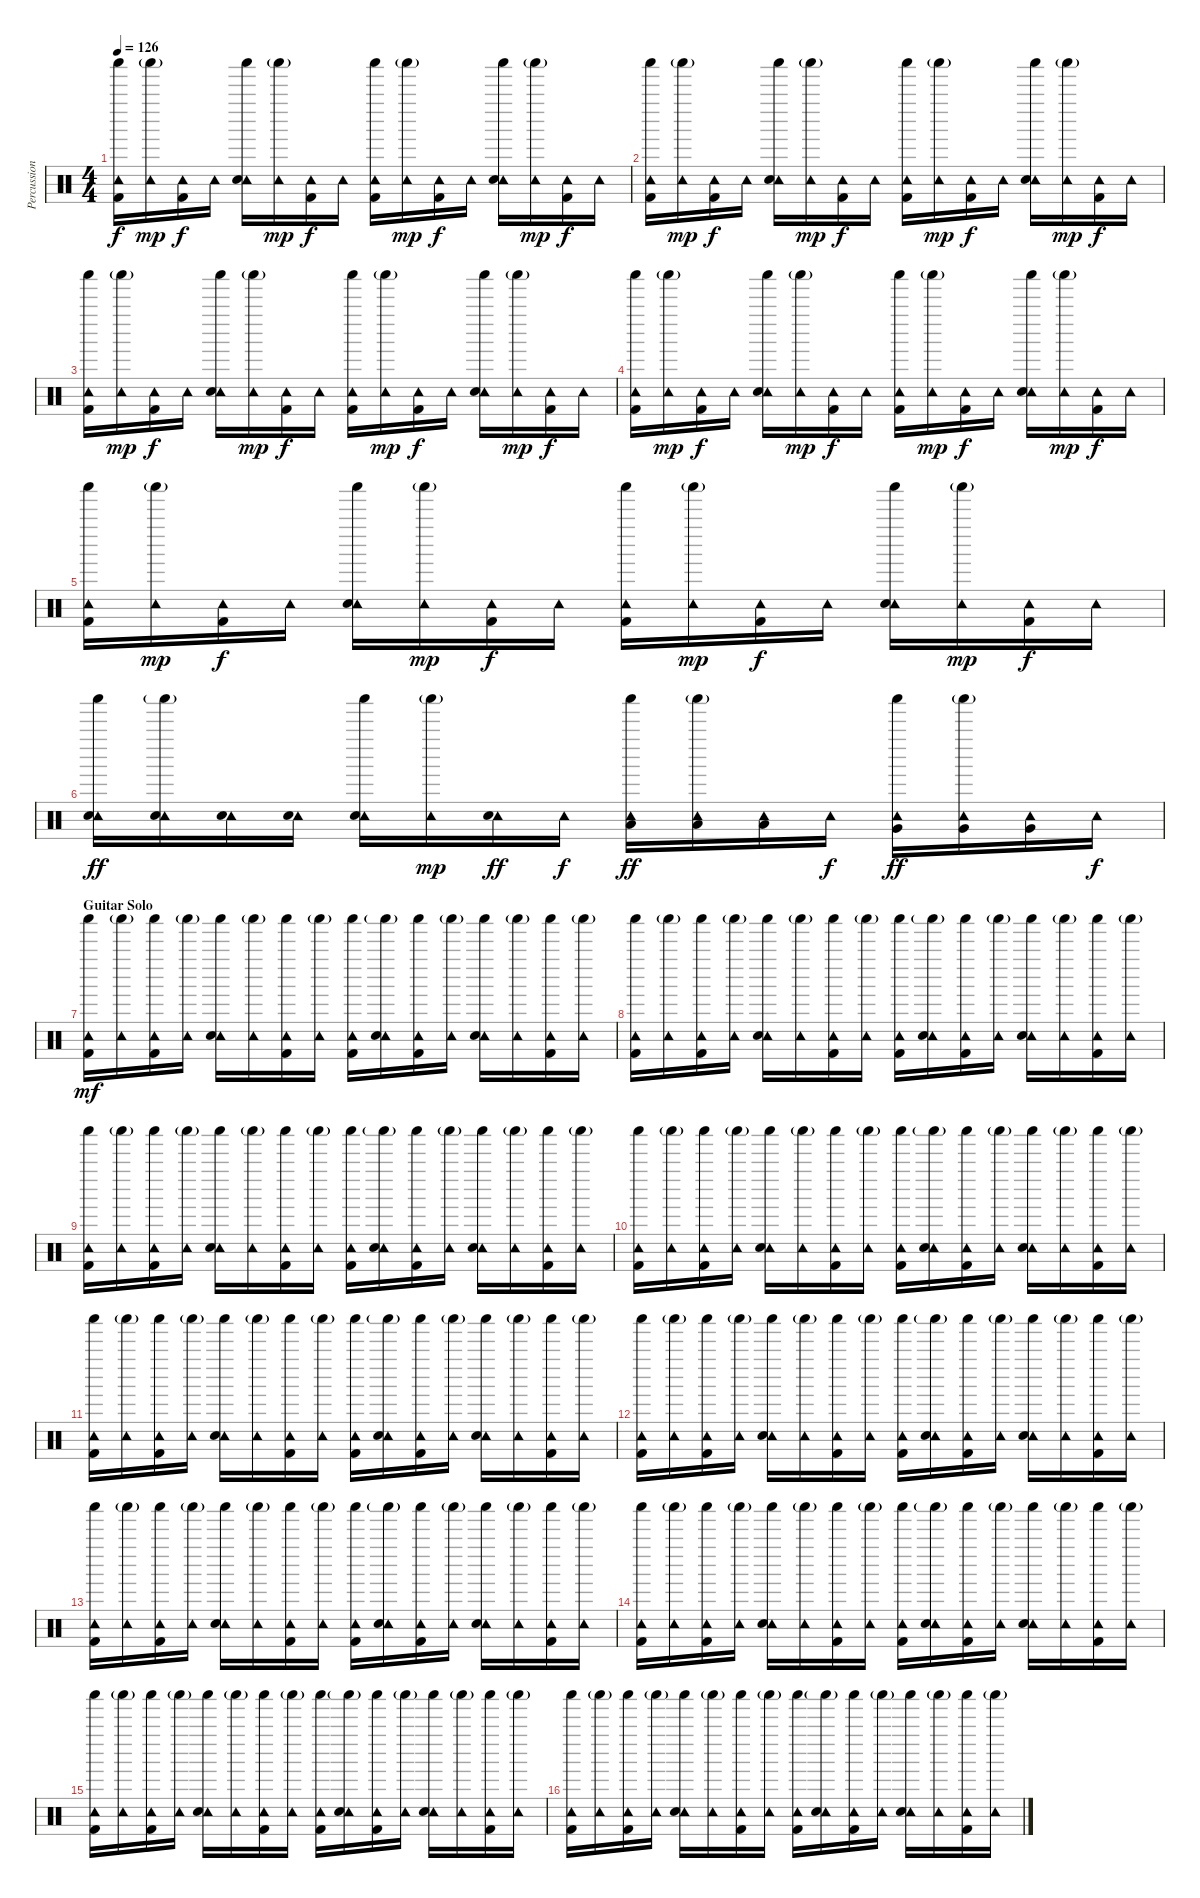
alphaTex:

\track ("Percussion" "Percussion") {instrument percussion}
\staff {score}
\articulation defaults
\ts (4 4)
\tempo 126
\clef neutral
\ks c
("Shaker (hit)" "Tambourine (hit)" "Kick (hit) 2").16{dy f} ("Shaker (hit)"{g} "Tambourine (hit)").16{dy mp} ("Tambourine (hit)" "Kick (hit) 2").16{dy f} "Tambourine (hit)".16 ("Shaker (hit)" "Tambourine (hit)" "Electric Snare (hit)").16 ("Shaker (hit)"{g} "Tambourine (hit)").16{dy mp} ("Tambourine (hit)" "Kick (hit) 2").16{dy f} "Tambourine (hit)".16 ("Shaker (hit)" "Tambourine (hit)" "Kick (hit) 2").16 ("Shaker (hit)"{g} "Tambourine (hit)").16{dy mp} ("Tambourine (hit)" "Kick (hit) 2").16{dy f} "Tambourine (hit)".16 ("Shaker (hit)" "Tambourine (hit)" "Electric Snare (hit)").16 ("Shaker (hit)"{g} "Tambourine (hit)").16{dy mp} ("Tambourine (hit)" "Kick (hit) 2").16{dy f} "Tambourine (hit)".16 |
("Shaker (hit)" "Tambourine (hit)" "Kick (hit) 2").16 ("Shaker (hit)"{g} "Tambourine (hit)").16{dy mp} ("Tambourine (hit)" "Kick (hit) 2").16{dy f} "Tambourine (hit)".16 ("Shaker (hit)" "Tambourine (hit)" "Electric Snare (hit)").16 ("Shaker (hit)"{g} "Tambourine (hit)").16{dy mp} ("Tambourine (hit)" "Kick (hit) 2").16{dy f} "Tambourine (hit)".16 ("Shaker (hit)" "Tambourine (hit)" "Kick (hit) 2").16 ("Shaker (hit)"{g} "Tambourine (hit)").16{dy mp} ("Tambourine (hit)" "Kick (hit) 2").16{dy f} "Tambourine (hit)".16 ("Shaker (hit)" "Tambourine (hit)" "Electric Snare (hit)").16 ("Shaker (hit)"{g} "Tambourine (hit)").16{dy mp} ("Tambourine (hit)" "Kick (hit) 2").16{dy f} "Tambourine (hit)".16 |
("Shaker (hit)" "Tambourine (hit)" "Kick (hit) 2").16 ("Shaker (hit)"{g} "Tambourine (hit)").16{dy mp} ("Tambourine (hit)" "Kick (hit) 2").16{dy f} "Tambourine (hit)".16 ("Shaker (hit)" "Tambourine (hit)" "Electric Snare (hit)").16 ("Shaker (hit)"{g} "Tambourine (hit)").16{dy mp} ("Tambourine (hit)" "Kick (hit) 2").16{dy f} "Tambourine (hit)".16 ("Shaker (hit)" "Tambourine (hit)" "Kick (hit) 2").16 ("Shaker (hit)"{g} "Tambourine (hit)").16{dy mp} ("Tambourine (hit)" "Kick (hit) 2").16{dy f} "Tambourine (hit)".16 ("Shaker (hit)" "Tambourine (hit)" "Electric Snare (hit)").16 ("Shaker (hit)"{g} "Tambourine (hit)").16{dy mp} ("Tambourine (hit)" "Kick (hit) 2").16{dy f} "Tambourine (hit)".16 |
("Shaker (hit)" "Tambourine (hit)" "Kick (hit) 2").16 ("Shaker (hit)"{g} "Tambourine (hit)").16{dy mp} ("Tambourine (hit)" "Kick (hit) 2").16{dy f} "Tambourine (hit)".16 ("Shaker (hit)" "Tambourine (hit)" "Electric Snare (hit)").16 ("Shaker (hit)"{g} "Tambourine (hit)").16{dy mp} ("Tambourine (hit)" "Kick (hit) 2").16{dy f} "Tambourine (hit)".16 ("Shaker (hit)" "Tambourine (hit)" "Kick (hit) 2").16 ("Shaker (hit)"{g} "Tambourine (hit)").16{dy mp} ("Tambourine (hit)" "Kick (hit) 2").16{dy f} "Tambourine (hit)".16 ("Shaker (hit)" "Tambourine (hit)" "Electric Snare (hit)").16 ("Shaker (hit)"{g} "Tambourine (hit)").16{dy mp} ("Tambourine (hit)" "Kick (hit) 2").16{dy f} "Tambourine (hit)".16 |
("Shaker (hit)" "Tambourine (hit)" "Kick (hit) 2").16 ("Shaker (hit)"{g} "Tambourine (hit)").16{dy mp} ("Tambourine (hit)" "Kick (hit) 2").16{dy f} "Tambourine (hit)".16 ("Shaker (hit)" "Tambourine (hit)" "Electric Snare (hit)").16 ("Shaker (hit)"{g} "Tambourine (hit)").16{dy mp} ("Tambourine (hit)" "Kick (hit) 2").16{dy f} "Tambourine (hit)".16 ("Shaker (hit)" "Tambourine (hit)" "Kick (hit) 2").16 ("Shaker (hit)"{g} "Tambourine (hit)").16{dy mp} ("Tambourine (hit)" "Kick (hit) 2").16{dy f} "Tambourine (hit)".16 ("Shaker (hit)" "Tambourine (hit)" "Electric Snare (hit)").16 ("Shaker (hit)"{g} "Tambourine (hit)").16{dy mp} ("Tambourine (hit)" "Kick (hit) 2").16{dy f} "Tambourine (hit)".16 |
("Shaker (hit)" "Tambourine (hit)" "Electric Snare (hit)").16{dy ff} ("Shaker (hit)"{g} "Tambourine (hit)" "Electric Snare (hit)").16 ("Tambourine (hit)" "Electric Snare (hit)").16 ("Tambourine (hit)" "Electric Snare (hit)").16 ("Shaker (hit)" "Tambourine (hit)" "Electric Snare (hit)").16 ("Shaker (hit)"{g} "Tambourine (hit)").16{dy mp} ("Tambourine (hit)" "Electric Snare (hit)").16{dy ff} "Tambourine (hit)".16{dy f} ("Shaker (hit)" "Tambourine (hit)" "Low Tom (hit)").16{dy ff} ("Shaker (hit)"{g} "Tambourine (hit)" "Low Tom (hit)").16 ("Tambourine (hit)" "Low Tom (hit)").16 "Tambourine (hit)".16{dy f} ("Shaker (hit)" "Tambourine (hit)" "Very Low Tom (hit)").16{dy ff} ("Shaker (hit)"{g} "Tambourine (hit)" "Very Low Tom (hit)").16 ("Tambourine (hit)" "Very Low Tom (hit)").16 "Tambourine (hit)".16{dy f} |
\section ("" "Guitar Solo")
("Shaker (hit)" "Tambourine (hit)" "Kick (hit) 2").16{dy mf} ("Shaker (hit)"{g} "Tambourine (hit)").16 ("Shaker (hit)" "Tambourine (hit)" "Kick (hit) 2").16 ("Shaker (hit)"{g} "Tambourine (hit)").16 ("Shaker (hit)" "Tambourine (hit)" "Electric Snare (hit)").16 ("Shaker (hit)"{g} "Tambourine (hit)").16 ("Shaker (hit)" "Tambourine (hit)" "Kick (hit) 2").16 ("Shaker (hit)"{g} "Tambourine (hit)").16 ("Shaker (hit)" "Tambourine (hit)" "Kick (hit) 2").16 ("Shaker (hit)"{g} "Tambourine (hit)" "Electric Snare (hit)").16 ("Shaker (hit)" "Tambourine (hit)" "Kick (hit) 2").16 ("Shaker (hit)"{g} "Tambourine (hit)").16 ("Shaker (hit)" "Tambourine (hit)" "Electric Snare (hit)").16 ("Shaker (hit)"{g} "Tambourine (hit)").16 ("Shaker (hit)" "Tambourine (hit)" "Kick (hit) 2").16 ("Shaker (hit)"{g} "Tambourine (hit)").16 |
("Shaker (hit)" "Tambourine (hit)" "Kick (hit) 2").16 ("Shaker (hit)"{g} "Tambourine (hit)").16 ("Shaker (hit)" "Tambourine (hit)" "Kick (hit) 2").16 ("Shaker (hit)"{g} "Tambourine (hit)").16 ("Shaker (hit)" "Tambourine (hit)" "Electric Snare (hit)").16 ("Shaker (hit)"{g} "Tambourine (hit)").16 ("Shaker (hit)" "Tambourine (hit)" "Kick (hit) 2").16 ("Shaker (hit)"{g} "Tambourine (hit)").16 ("Shaker (hit)" "Tambourine (hit)" "Kick (hit) 2").16 ("Shaker (hit)"{g} "Tambourine (hit)" "Electric Snare (hit)").16 ("Shaker (hit)" "Tambourine (hit)" "Kick (hit) 2").16 ("Shaker (hit)"{g} "Tambourine (hit)").16 ("Shaker (hit)" "Tambourine (hit)" "Electric Snare (hit)").16 ("Shaker (hit)"{g} "Tambourine (hit)").16 ("Shaker (hit)" "Tambourine (hit)" "Kick (hit) 2").16 ("Shaker (hit)"{g} "Tambourine (hit)").16 |
("Shaker (hit)" "Tambourine (hit)" "Kick (hit) 2").16 ("Shaker (hit)"{g} "Tambourine (hit)").16 ("Shaker (hit)" "Tambourine (hit)" "Kick (hit) 2").16 ("Shaker (hit)"{g} "Tambourine (hit)").16 ("Shaker (hit)" "Tambourine (hit)" "Electric Snare (hit)").16 ("Shaker (hit)"{g} "Tambourine (hit)").16 ("Shaker (hit)" "Tambourine (hit)" "Kick (hit) 2").16 ("Shaker (hit)"{g} "Tambourine (hit)").16 ("Shaker (hit)" "Tambourine (hit)" "Kick (hit) 2").16 ("Shaker (hit)"{g} "Tambourine (hit)" "Electric Snare (hit)").16 ("Shaker (hit)" "Tambourine (hit)" "Kick (hit) 2").16 ("Shaker (hit)"{g} "Tambourine (hit)").16 ("Shaker (hit)" "Tambourine (hit)" "Electric Snare (hit)").16 ("Shaker (hit)"{g} "Tambourine (hit)").16 ("Shaker (hit)" "Tambourine (hit)" "Kick (hit) 2").16 ("Shaker (hit)"{g} "Tambourine (hit)").16 |
("Shaker (hit)" "Tambourine (hit)" "Kick (hit) 2").16 ("Shaker (hit)"{g} "Tambourine (hit)").16 ("Shaker (hit)" "Tambourine (hit)" "Kick (hit) 2").16 ("Shaker (hit)"{g} "Tambourine (hit)").16 ("Shaker (hit)" "Tambourine (hit)" "Electric Snare (hit)").16 ("Shaker (hit)"{g} "Tambourine (hit)").16 ("Shaker (hit)" "Tambourine (hit)" "Kick (hit) 2").16 ("Shaker (hit)"{g} "Tambourine (hit)").16 ("Shaker (hit)" "Tambourine (hit)" "Kick (hit) 2").16 ("Shaker (hit)"{g} "Tambourine (hit)" "Electric Snare (hit)").16 ("Shaker (hit)" "Tambourine (hit)" "Kick (hit) 2").16 ("Shaker (hit)"{g} "Tambourine (hit)").16 ("Shaker (hit)" "Tambourine (hit)" "Electric Snare (hit)").16 ("Shaker (hit)"{g} "Tambourine (hit)").16 ("Shaker (hit)" "Tambourine (hit)" "Kick (hit) 2").16 ("Shaker (hit)"{g} "Tambourine (hit)").16 |
("Shaker (hit)" "Tambourine (hit)" "Kick (hit) 2").16 ("Shaker (hit)"{g} "Tambourine (hit)").16 ("Shaker (hit)" "Tambourine (hit)" "Kick (hit) 2").16 ("Shaker (hit)"{g} "Tambourine (hit)").16 ("Shaker (hit)" "Tambourine (hit)" "Electric Snare (hit)").16 ("Shaker (hit)"{g} "Tambourine (hit)").16 ("Shaker (hit)" "Tambourine (hit)" "Kick (hit) 2").16 ("Shaker (hit)"{g} "Tambourine (hit)").16 ("Shaker (hit)" "Tambourine (hit)" "Kick (hit) 2").16 ("Shaker (hit)"{g} "Tambourine (hit)" "Electric Snare (hit)").16 ("Shaker (hit)" "Tambourine (hit)" "Kick (hit) 2").16 ("Shaker (hit)"{g} "Tambourine (hit)").16 ("Shaker (hit)" "Tambourine (hit)" "Electric Snare (hit)").16 ("Shaker (hit)"{g} "Tambourine (hit)").16 ("Shaker (hit)" "Tambourine (hit)" "Kick (hit) 2").16 ("Shaker (hit)"{g} "Tambourine (hit)").16 |
("Shaker (hit)" "Tambourine (hit)" "Kick (hit) 2").16 ("Shaker (hit)"{g} "Tambourine (hit)").16 ("Shaker (hit)" "Tambourine (hit)" "Kick (hit) 2").16 ("Shaker (hit)"{g} "Tambourine (hit)").16 ("Shaker (hit)" "Tambourine (hit)" "Electric Snare (hit)").16 ("Shaker (hit)"{g} "Tambourine (hit)").16 ("Shaker (hit)" "Tambourine (hit)" "Kick (hit) 2").16 ("Shaker (hit)"{g} "Tambourine (hit)").16 ("Shaker (hit)" "Tambourine (hit)" "Kick (hit) 2").16 ("Shaker (hit)"{g} "Tambourine (hit)" "Electric Snare (hit)").16 ("Shaker (hit)" "Tambourine (hit)" "Kick (hit) 2").16 ("Shaker (hit)"{g} "Tambourine (hit)").16 ("Shaker (hit)" "Tambourine (hit)" "Electric Snare (hit)").16 ("Shaker (hit)"{g} "Tambourine (hit)").16 ("Shaker (hit)" "Tambourine (hit)" "Kick (hit) 2").16 ("Shaker (hit)"{g} "Tambourine (hit)").16 |
("Shaker (hit)" "Tambourine (hit)" "Kick (hit) 2").16 ("Shaker (hit)"{g} "Tambourine (hit)").16 ("Shaker (hit)" "Tambourine (hit)" "Kick (hit) 2").16 ("Shaker (hit)"{g} "Tambourine (hit)").16 ("Shaker (hit)" "Tambourine (hit)" "Electric Snare (hit)").16 ("Shaker (hit)"{g} "Tambourine (hit)").16 ("Shaker (hit)" "Tambourine (hit)" "Kick (hit) 2").16 ("Shaker (hit)"{g} "Tambourine (hit)").16 ("Shaker (hit)" "Tambourine (hit)" "Kick (hit) 2").16 ("Shaker (hit)"{g} "Tambourine (hit)" "Electric Snare (hit)").16 ("Shaker (hit)" "Tambourine (hit)" "Kick (hit) 2").16 ("Shaker (hit)"{g} "Tambourine (hit)").16 ("Shaker (hit)" "Tambourine (hit)" "Electric Snare (hit)").16 ("Shaker (hit)"{g} "Tambourine (hit)").16 ("Shaker (hit)" "Tambourine (hit)" "Kick (hit) 2").16 ("Shaker (hit)"{g} "Tambourine (hit)").16 |
("Shaker (hit)" "Tambourine (hit)" "Kick (hit) 2").16 ("Shaker (hit)"{g} "Tambourine (hit)").16 ("Shaker (hit)" "Tambourine (hit)" "Kick (hit) 2").16 ("Shaker (hit)"{g} "Tambourine (hit)").16 ("Shaker (hit)" "Tambourine (hit)" "Electric Snare (hit)").16 ("Shaker (hit)"{g} "Tambourine (hit)").16 ("Shaker (hit)" "Tambourine (hit)" "Kick (hit) 2").16 ("Shaker (hit)"{g} "Tambourine (hit)").16 ("Shaker (hit)" "Tambourine (hit)" "Kick (hit) 2").16 ("Shaker (hit)"{g} "Tambourine (hit)" "Electric Snare (hit)").16 ("Shaker (hit)" "Tambourine (hit)" "Kick (hit) 2").16 ("Shaker (hit)"{g} "Tambourine (hit)").16 ("Shaker (hit)" "Tambourine (hit)" "Electric Snare (hit)").16 ("Shaker (hit)"{g} "Tambourine (hit)").16 ("Shaker (hit)" "Tambourine (hit)" "Kick (hit) 2").16 ("Shaker (hit)"{g} "Tambourine (hit)").16 |
("Shaker (hit)" "Tambourine (hit)" "Kick (hit) 2").16 ("Shaker (hit)"{g} "Tambourine (hit)").16 ("Shaker (hit)" "Tambourine (hit)" "Kick (hit) 2").16 ("Shaker (hit)"{g} "Tambourine (hit)").16 ("Shaker (hit)" "Tambourine (hit)" "Electric Snare (hit)").16 ("Shaker (hit)"{g} "Tambourine (hit)").16 ("Shaker (hit)" "Tambourine (hit)" "Kick (hit) 2").16 ("Shaker (hit)"{g} "Tambourine (hit)").16 ("Shaker (hit)" "Tambourine (hit)" "Kick (hit) 2").16 ("Shaker (hit)"{g} "Tambourine (hit)" "Electric Snare (hit)").16 ("Shaker (hit)" "Tambourine (hit)" "Kick (hit) 2").16 ("Shaker (hit)"{g} "Tambourine (hit)").16 ("Shaker (hit)" "Tambourine (hit)" "Electric Snare (hit)").16 ("Shaker (hit)"{g} "Tambourine (hit)").16 ("Shaker (hit)" "Tambourine (hit)" "Kick (hit) 2").16 ("Shaker (hit)"{g} "Tambourine (hit)").16 |
("Shaker (hit)" "Tambourine (hit)" "Kick (hit) 2").16 ("Shaker (hit)"{g} "Tambourine (hit)").16 ("Shaker (hit)" "Tambourine (hit)" "Kick (hit) 2").16 ("Shaker (hit)"{g} "Tambourine (hit)").16 ("Shaker (hit)" "Tambourine (hit)" "Electric Snare (hit)").16 ("Shaker (hit)"{g} "Tambourine (hit)").16 ("Shaker (hit)" "Tambourine (hit)" "Kick (hit) 2").16 ("Shaker (hit)"{g} "Tambourine (hit)").16 ("Shaker (hit)" "Tambourine (hit)" "Kick (hit) 2").16 ("Shaker (hit)"{g} "Tambourine (hit)" "Electric Snare (hit)").16 ("Shaker (hit)" "Tambourine (hit)" "Kick (hit) 2").16 ("Shaker (hit)"{g} "Tambourine (hit)").16 ("Shaker (hit)" "Tambourine (hit)" "Electric Snare (hit)").16 ("Shaker (hit)"{g} "Tambourine (hit)").16 ("Shaker (hit)" "Tambourine (hit)" "Kick (hit) 2").16 ("Shaker (hit)"{g} "Tambourine (hit)").16
